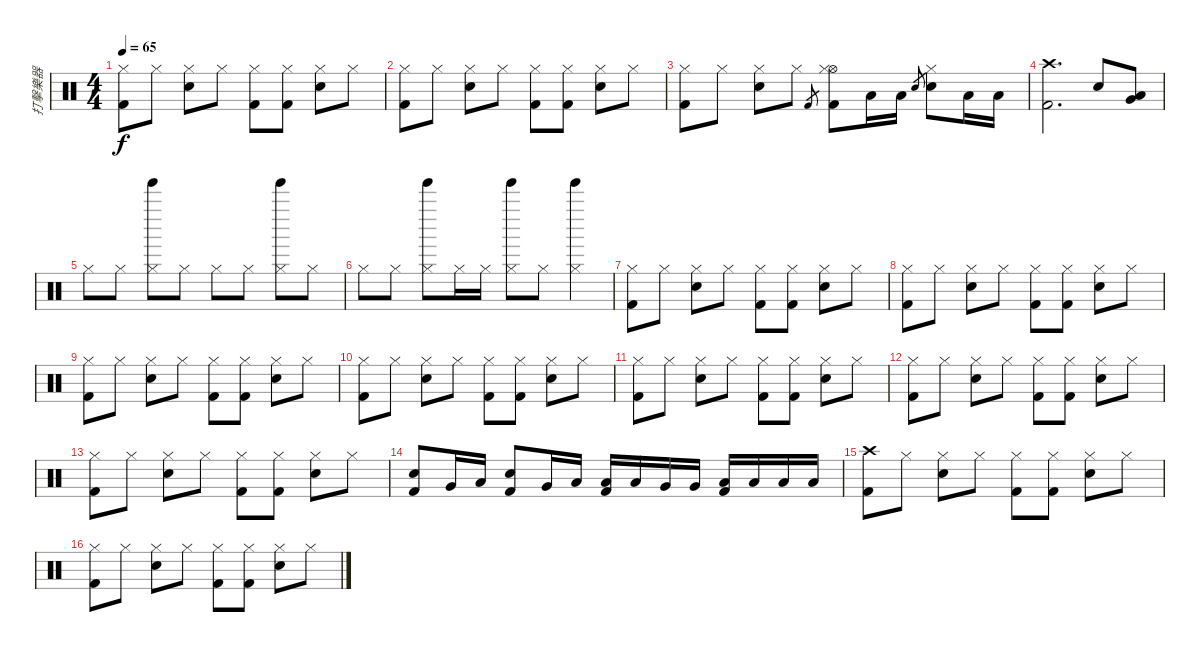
\track ("打擊樂器" "打擊樂器") {instrument percussion}
\staff {score}
\articulation defaults
\ts (4 4)
\tempo 65
\clef neutral
\ks c
("Kick (hit) 2" "Hi-Hat (closed)").8{dy f} "Hi-Hat (closed)".8 ("Snare (hit) 2" "Hi-Hat (closed)").8 "Hi-Hat (closed)".8 ("Kick (hit) 2" "Hi-Hat (closed)").8 ("Kick (hit) 2" "Hi-Hat (closed)").8 ("Snare (hit) 2" "Hi-Hat (closed)").8 "Hi-Hat (closed)".8 |
("Kick (hit) 2" "Hi-Hat (closed)").8 "Hi-Hat (closed)".8 ("Snare (hit) 2" "Hi-Hat (closed)").8 "Hi-Hat (closed)".8 ("Kick (hit) 2" "Hi-Hat (closed)").8 ("Kick (hit) 2" "Hi-Hat (closed)").8 ("Snare (hit) 2" "Hi-Hat (closed)").8 "Hi-Hat (closed)".8 |
("Kick (hit) 2" "Hi-Hat (closed)").8 "Hi-Hat (closed)".8 ("Snare (hit) 2" "Hi-Hat (closed)").8 "Hi-Hat (closed)".8 "Kick (hit) 2".8{gr} ("Hi-Hat (open)" "Kick (hit) 2" "Hi-Hat (closed)").8 "Low Floor Tom (hit)".16 "Low Floor Tom (hit)".16 "Snare (hit) 2".8{gr} ("Snare (hit) 2" "Hi-Hat (closed)").8 "Low Floor Tom (hit)".16 "Low Floor Tom (hit)".16 |
("Kick (hit) 2" "Crash high (hit)").2{d} "Snare (hit) 2".8 ("Very Low Tom (hit)" "Low Floor Tom (hit)").8 |
"Hi-Hat (closed)".8 "Hi-Hat (closed)".8 ("Tinkle Bell (hit)" "Hi-Hat (closed)").8 "Hi-Hat (closed)".8 "Hi-Hat (closed)".8 "Hi-Hat (closed)".8 ("Tinkle Bell (hit)" "Hi-Hat (closed)").8 "Hi-Hat (closed)".8 |
"Hi-Hat (closed)".8 "Hi-Hat (closed)".8 ("Tinkle Bell (hit)" "Hi-Hat (closed)").8 "Hi-Hat (closed)".16 "Hi-Hat (closed)".16 ("Tinkle Bell (hit)" "Hi-Hat (closed)").8 "Hi-Hat (closed)".8 ("Tinkle Bell (hit)" "Hi-Hat (closed)").4 |
("Kick (hit) 2" "Hi-Hat (closed)").8 "Hi-Hat (closed)".8 ("Snare (hit) 2" "Hi-Hat (closed)").8 "Hi-Hat (closed)".8 ("Kick (hit) 2" "Hi-Hat (closed)").8 ("Kick (hit) 2" "Hi-Hat (closed)").8 ("Snare (hit) 2" "Hi-Hat (closed)").8 "Hi-Hat (closed)".8 |
("Kick (hit) 2" "Hi-Hat (closed)").8 "Hi-Hat (closed)".8 ("Snare (hit) 2" "Hi-Hat (closed)").8 "Hi-Hat (closed)".8 ("Kick (hit) 2" "Hi-Hat (closed)").8 ("Kick (hit) 2" "Hi-Hat (closed)").8 ("Snare (hit) 2" "Hi-Hat (closed)").8 "Hi-Hat (closed)".8 |
("Kick (hit) 2" "Hi-Hat (closed)").8 "Hi-Hat (closed)".8 ("Snare (hit) 2" "Hi-Hat (closed)").8 "Hi-Hat (closed)".8 ("Kick (hit) 2" "Hi-Hat (closed)").8 ("Kick (hit) 2" "Hi-Hat (closed)").8 ("Snare (hit) 2" "Hi-Hat (closed)").8 "Hi-Hat (closed)".8 |
("Kick (hit) 2" "Hi-Hat (closed)").8 "Hi-Hat (closed)".8 ("Snare (hit) 2" "Hi-Hat (closed)").8 "Hi-Hat (closed)".8 ("Kick (hit) 2" "Hi-Hat (closed)").8 ("Kick (hit) 2" "Hi-Hat (closed)").8 ("Snare (hit) 2" "Hi-Hat (closed)").8 "Hi-Hat (closed)".8 |
("Kick (hit) 2" "Hi-Hat (closed)").8 "Hi-Hat (closed)".8 ("Snare (hit) 2" "Hi-Hat (closed)").8 "Hi-Hat (closed)".8 ("Kick (hit) 2" "Hi-Hat (closed)").8 ("Kick (hit) 2" "Hi-Hat (closed)").8 ("Snare (hit) 2" "Hi-Hat (closed)").8 "Hi-Hat (closed)".8 |
("Kick (hit) 2" "Hi-Hat (closed)").8 "Hi-Hat (closed)".8 ("Snare (hit) 2" "Hi-Hat (closed)").8 "Hi-Hat (closed)".8 ("Kick (hit) 2" "Hi-Hat (closed)").8 ("Kick (hit) 2" "Hi-Hat (closed)").8 ("Snare (hit) 2" "Hi-Hat (closed)").8 "Hi-Hat (closed)".8 |
("Kick (hit) 2" "Hi-Hat (closed)").8 "Hi-Hat (closed)".8 ("Snare (hit) 2" "Hi-Hat (closed)").8 "Hi-Hat (closed)".8 ("Kick (hit) 2" "Hi-Hat (closed)").8 ("Kick (hit) 2" "Hi-Hat (closed)").8 ("Snare (hit) 2" "Hi-Hat (closed)").8 "Hi-Hat (closed)".8 |
("Snare (hit) 2" "Kick (hit) 2").8 "Very Low Tom (hit)".16 "Low Floor Tom (hit)".16 ("Snare (hit) 2" "Kick (hit) 2").8 "Very Low Tom (hit)".16 "Low Floor Tom (hit)".16 ("Low Tom (hit)" "Kick (hit) 2").16 "Low Tom (hit)".16 "Very Low Tom (hit)".16 "Very Low Tom (hit)".16 ("Low Floor Tom (hit)" "Kick (hit) 2").16 "Low Floor Tom (hit)".16 "Low Floor Tom (hit)".16 "Low Floor Tom (hit)".16 |
("Crash high (hit)" "Kick (hit) 2").8 "Hi-Hat (closed)".8 ("Snare (hit) 2" "Hi-Hat (closed)").8 "Hi-Hat (closed)".8 ("Kick (hit) 2" "Hi-Hat (closed)").8 ("Kick (hit) 2" "Hi-Hat (closed)").8 ("Snare (hit) 2" "Hi-Hat (closed)").8 "Hi-Hat (closed)".8 |
("Kick (hit) 2" "Hi-Hat (closed)").8 "Hi-Hat (closed)".8 ("Snare (hit) 2" "Hi-Hat (closed)").8 "Hi-Hat (closed)".8 ("Kick (hit) 2" "Hi-Hat (closed)").8 ("Kick (hit) 2" "Hi-Hat (closed)").8 ("Snare (hit) 2" "Hi-Hat (closed)").8 "Hi-Hat (closed)".8
